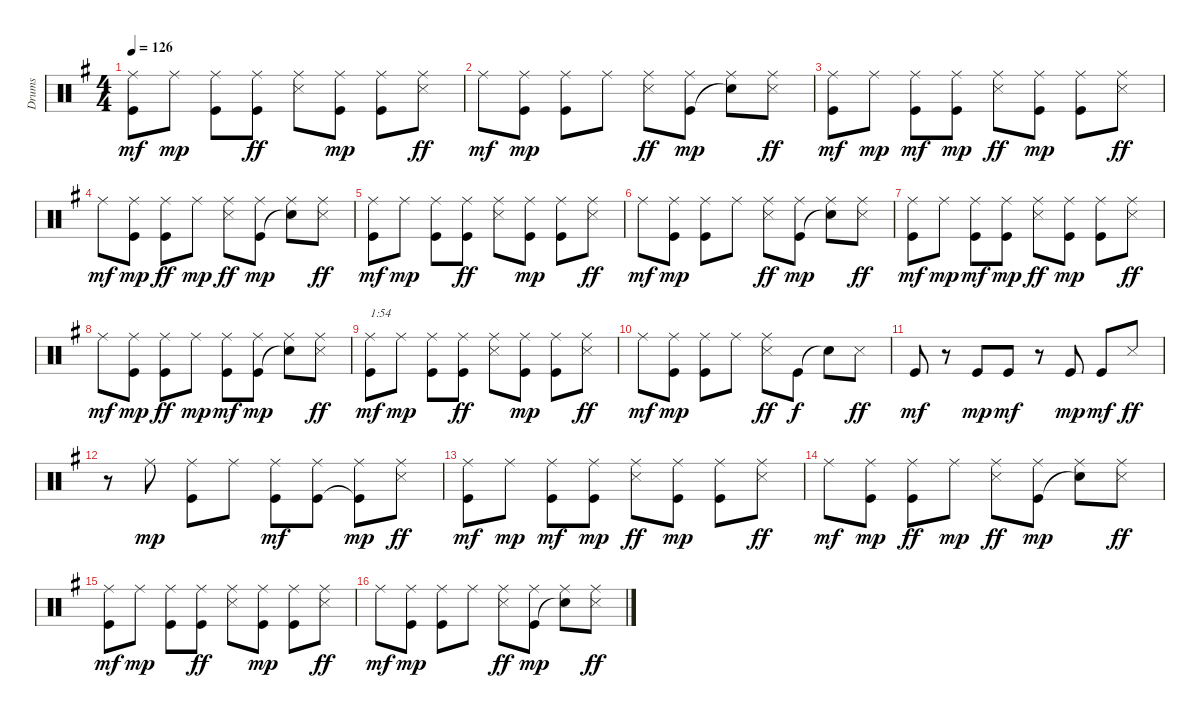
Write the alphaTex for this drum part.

\track ("Drums" "Drums") {instrument percussion}
\staff {score}
\articulation defaults
\ts (4 4)
\tempo 126
\clef neutral
\ks g
("Ride (middle)" "Kick (hit)").8{dy mf} "Ride (middle)".8{dy mp} ("Ride (middle)" "Kick (hit)").8 ("Ride (middle)" "Kick (hit)").8{dy ff} ("Ride (middle)" "Snare (side stick) 3").8 ("Ride (middle)" "Kick (hit)").8{dy mp} ("Ride (middle)" "Kick (hit)").8 ("Ride (middle)" "Snare (side stick) 3").8{dy ff} |
"Ride (middle)".8{dy mf} ("Ride (middle)" "Kick (hit)").8{dy mp} ("Ride (middle)" "Kick (hit)").8 "Ride (middle)".8 ("Ride (middle)" "Snare (side stick) 3").8{dy ff} ("Ride (middle)" "Kick (hit)").8{dy mp} ("Ride (middle)" "Snare (hit)"{t}).8 ("Ride (middle)" "Snare (side stick) 3").8{dy ff} |
("Ride (middle)" "Kick (hit)").8{dy mf} "Ride (middle)".8{dy mp} ("Ride (middle)" "Kick (hit)").8{dy mf} ("Ride (middle)" "Kick (hit)").8{dy mp} ("Ride (middle)" "Snare (side stick) 3").8{dy ff} ("Ride (middle)" "Kick (hit)").8{dy mp} ("Ride (middle)" "Kick (hit)").8 ("Ride (middle)" "Snare (side stick) 3").8{dy ff} |
"Ride (middle)".8{dy mf} ("Ride (middle)" "Kick (hit)").8{dy mp} ("Ride (middle)" "Kick (hit)").8{dy ff} "Ride (middle)".8{dy mp} ("Ride (middle)" "Snare (side stick) 3").8{dy ff} ("Ride (middle)" "Kick (hit)").8{dy mp} ("Ride (middle)" "Snare (hit)"{t}).8 ("Ride (middle)" "Snare (side stick) 3").8{dy ff} |
("Ride (middle)" "Kick (hit)").8{dy mf} "Ride (middle)".8{dy mp} ("Ride (middle)" "Kick (hit)").8 ("Ride (middle)" "Kick (hit)").8{dy ff} ("Ride (middle)" "Snare (side stick) 3").8 ("Ride (middle)" "Kick (hit)").8{dy mp} ("Ride (middle)" "Kick (hit)").8 ("Ride (middle)" "Snare (side stick) 3").8{dy ff} |
"Ride (middle)".8{dy mf} ("Ride (middle)" "Kick (hit)").8{dy mp} ("Ride (middle)" "Kick (hit)").8 "Ride (middle)".8 ("Ride (middle)" "Snare (side stick) 3").8{dy ff} ("Ride (middle)" "Kick (hit)").8{dy mp} ("Ride (middle)" "Snare (hit)"{t}).8 ("Ride (middle)" "Snare (side stick) 3").8{dy ff} |
("Ride (middle)" "Kick (hit)").8{dy mf} "Ride (middle)".8{dy mp} ("Ride (middle)" "Kick (hit)").8{dy mf} ("Ride (middle)" "Kick (hit)").8{dy mp} ("Ride (middle)" "Snare (side stick) 3").8{dy ff} ("Ride (middle)" "Kick (hit)").8{dy mp} ("Ride (middle)" "Kick (hit)").8 ("Ride (middle)" "Snare (side stick) 3").8{dy ff} |
"Ride (middle)".8{dy mf} ("Ride (middle)" "Kick (hit)").8{dy mp} ("Ride (middle)" "Kick (hit)").8{dy ff} "Ride (middle)".8{dy mp} ("Ride (middle)" "Kick (hit)").8{dy mf} ("Ride (middle)" "Kick (hit)").8{dy mp} ("Ride (middle)" "Snare (hit)"{t}).8 ("Ride (middle)" "Snare (side stick) 3").8{dy ff} |
("Ride (middle)" "Kick (hit)").8{txt "1:54" dy mf} "Ride (middle)".8{dy mp} ("Ride (middle)" "Kick (hit)").8 ("Ride (middle)" "Kick (hit)").8{dy ff} ("Ride (middle)" "Snare (side stick) 3").8 ("Ride (middle)" "Kick (hit)").8{dy mp} ("Ride (middle)" "Kick (hit)").8 ("Ride (middle)" "Snare (side stick) 3").8{dy ff} |
"Ride (middle)".8{dy mf} ("Ride (middle)" "Kick (hit)").8{dy mp} ("Ride (middle)" "Kick (hit)").8 "Ride (middle)".8 ("Ride (middle)" "Snare (side stick) 3").8{dy ff} "Kick (hit)".8{dy f} "Snare (hit)"{t}.8 "Snare (side stick) 3".8{dy ff} |
"Kick (hit)".8{dy mf} r.8 "Kick (hit)".8{dy mp} "Kick (hit)".8{dy mf} r.8 "Kick (hit)".8{dy mp} "Kick (hit)".8{dy mf} "Snare (side stick) 3".8{dy ff} |
r.8 "Ride (middle)".8{dy mp} ("Ride (middle)" "Kick (hit)").8 "Ride (middle)".8 ("Ride (middle)" "Kick (hit)").8{dy mf} ("Ride (middle)" "Kick (hit)").8 ("Ride (middle)" "Kick (hit)"{t}).8{dy mp} ("Ride (middle)" "Snare (side stick) 3").8{dy ff} |
("Ride (middle)" "Kick (hit)").8{dy mf} "Ride (middle)".8{dy mp} ("Ride (middle)" "Kick (hit)").8{dy mf} ("Ride (middle)" "Kick (hit)").8{dy mp} ("Ride (middle)" "Snare (side stick) 3").8{dy ff} ("Ride (middle)" "Kick (hit)").8{dy mp} ("Ride (middle)" "Kick (hit)").8 ("Ride (middle)" "Snare (side stick) 3").8{dy ff} |
"Ride (middle)".8{dy mf} ("Ride (middle)" "Kick (hit)").8{dy mp} ("Ride (middle)" "Kick (hit)").8{dy ff} "Ride (middle)".8{dy mp} ("Ride (middle)" "Snare (side stick) 3").8{dy ff} ("Ride (middle)" "Kick (hit)").8{dy mp} ("Ride (middle)" "Snare (hit)"{t}).8 ("Ride (middle)" "Snare (side stick) 3").8{dy ff} |
("Ride (middle)" "Kick (hit)").8{dy mf} "Ride (middle)".8{dy mp} ("Ride (middle)" "Kick (hit)").8 ("Ride (middle)" "Kick (hit)").8{dy ff} ("Ride (middle)" "Snare (side stick) 3").8 ("Ride (middle)" "Kick (hit)").8{dy mp} ("Ride (middle)" "Kick (hit)").8 ("Ride (middle)" "Snare (side stick) 3").8{dy ff} |
"Ride (middle)".8{dy mf} ("Ride (middle)" "Kick (hit)").8{dy mp} ("Ride (middle)" "Kick (hit)").8 "Ride (middle)".8 ("Ride (middle)" "Snare (side stick) 3").8{dy ff} ("Ride (middle)" "Kick (hit)").8{dy mp} ("Ride (middle)" "Snare (hit)"{t}).8 ("Ride (middle)" "Snare (side stick) 3").8{dy ff}
